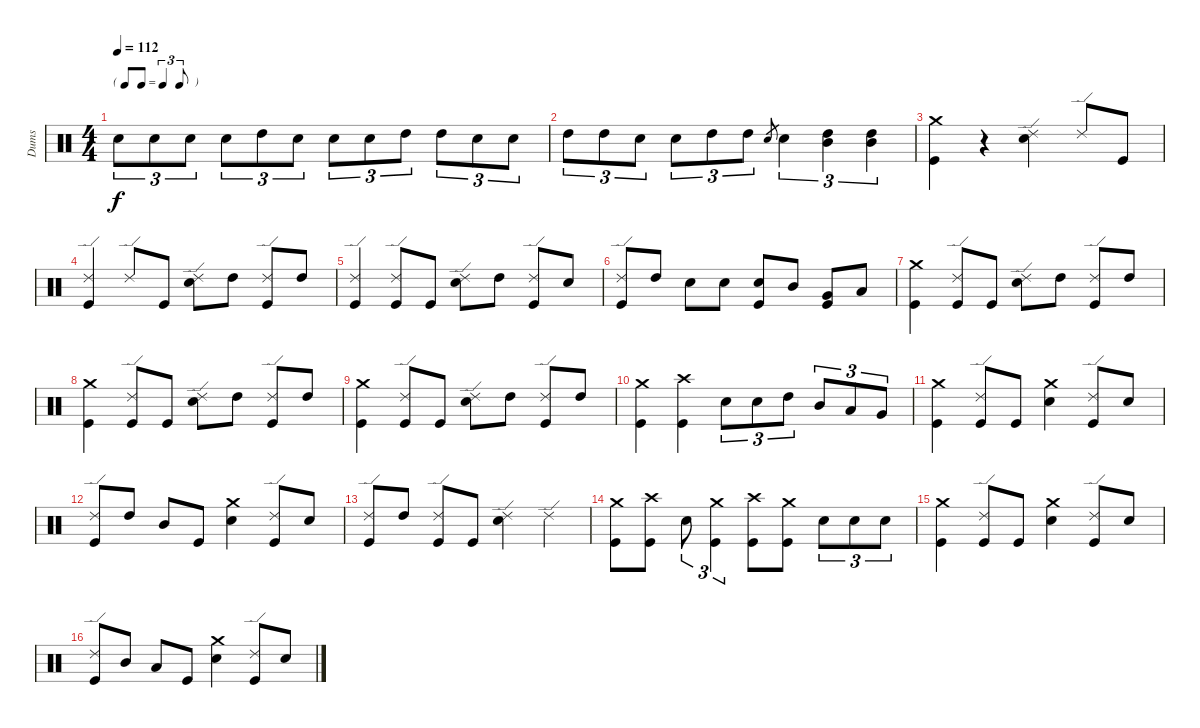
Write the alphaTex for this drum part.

\track ("Dums" "Dums") {instrument percussion}
\staff {score}
\articulation defaults
\ts (4 4)
\tf triplet8th
\tempo 112
\clef neutral
\ks c "Electric Snare (hit)".8{tu (3 2) dy f} "Electric Snare (hit)".8{tu (3 2)} "Electric Snare (hit)".8{tu (3 2)} "Electric Snare (hit)".8{tu (3 2)} "High Tom (hit)".8{tu (3 2)} "Electric Snare (hit)".8{tu (3 2)} "Electric Snare (hit)".8{tu (3 2)} "Electric Snare (hit)".8{tu (3 2)} "High Tom (hit)".8{tu (3 2)} "High Tom (hit)".8{tu (3 2)} "Electric Snare (hit)".8{tu (3 2)} "Electric Snare (hit)".8{tu (3 2)}
|
"High Tom (hit)".8{tu (3 2)} "High Tom (hit)".8{tu (3 2)} "Electric Snare (hit)".8{tu (3 2)} "Electric Snare (hit)".8{tu (3 2)} "High Tom (hit)".8{tu (3 2)} "High Tom (hit)".8{tu (3 2)} "Electric Snare (hit)".8{gr} "Electric Snare (hit)".4{tu (3 2)} ("Mid Tom (hit)" "High Tom (hit)").4{tu (3 2)} ("Mid Tom (hit)" "High Tom (hit)").4{tu (3 2)} |
("Kick (hit)" "Crash medium (hit)").4 r.4 ("Electric Snare (hit)" "Ride (edge) 2").4 "Ride (edge) 2".8 "Kick (hit)".8 |
("Kick (hit)" "Ride (edge) 2").4 "Ride (edge) 2".8 "Kick (hit)".8 ("Electric Snare (hit)" "Ride (edge) 2").8 "High Tom (hit)".8 ("Kick (hit)" "Ride (edge) 2").8 "High Tom (hit)".8 |
("Kick (hit)" "Ride (edge) 2").4 ("Kick (hit)" "Ride (edge) 2").8 "Kick (hit)".8 ("Electric Snare (hit)" "Ride (edge) 2").8 "High Tom (hit)".8 ("Kick (hit)" "Ride (edge) 2").8 "Electric Snare (hit)".8 |
("Kick (hit)" "Ride (edge) 2").8 "High Tom (hit)".8 "Electric Snare (hit)".8 "Electric Snare (hit)".8 ("Kick (hit)" "Electric Snare (hit)").8 "Mid Tom (hit)".8 ("Kick (hit)" "Very Low Tom (hit)").8 "Low Floor Tom (hit)".8 |
("Kick (hit)" "Crash medium (hit)").4 ("Kick (hit)" "Ride (edge) 2").8 "Kick (hit)".8 ("Electric Snare (hit)" "Ride (edge) 2").8 "High Tom (hit)".8 ("Kick (hit)" "Ride (edge) 2").8 "High Tom (hit)".8 |
("Kick (hit)" "Crash medium (hit)").4 ("Kick (hit)" "Ride (edge) 2").8 "Kick (hit)".8 ("Electric Snare (hit)" "Ride (edge) 2").8 "High Tom (hit)".8 ("Kick (hit)" "Ride (edge) 2").8 "High Tom (hit)".8 |
("Kick (hit)" "Crash medium (hit)").4 ("Kick (hit)" "Ride (edge) 2").8 "Kick (hit)".8 ("Electric Snare (hit)" "Ride (edge) 2").8 "High Tom (hit)".8 ("Kick (hit)" "Ride (edge) 2").8 "High Tom (hit)".8 |
("Kick (hit)" "Crash medium (hit)").4 ("Kick (hit)" "Crash high (hit)").4 "Electric Snare (hit)".8{tu (3 2)} "Electric Snare (hit)".8{tu (3 2)} "High Tom (hit)".8{tu (3 2)} "Mid Tom (hit)".8{tu (3 2)} "Low Tom (hit)".8{tu (3 2)} "Very Low Tom (hit)".8{tu (3 2)} |
("Kick (hit)" "Crash medium (hit)").4 ("Kick (hit)" "Ride (edge) 2").8 "Kick (hit)".8 ("Electric Snare (hit)" "Crash medium (hit)").4 ("Kick (hit)" "Ride (edge) 2").8 "Electric Snare (hit)".8 |
("Kick (hit)" "Ride (edge) 2").8 "High Tom (hit)".8 "Mid Tom (hit)".8 "Kick (hit)".8 ("Electric Snare (hit)" "Crash medium (hit)").4 ("Kick (hit)" "Ride (edge) 2").8 "Electric Snare (hit)".8 |
("Kick (hit)" "Ride (edge) 2").8 "High Tom (hit)".8 ("Kick (hit)" "Ride (edge) 2").8 "Kick (hit)".8 ("Electric Snare (hit)" "Ride (edge) 2").4 "Ride (edge) 2".4 |
("Kick (hit)" "Crash medium (hit)").8 ("Kick (hit)" "Crash high (hit)").8 "Electric Snare (hit)".8{tu (3 2)} ("Kick (hit)" "Crash medium (hit)").4{tu (3 2)} ("Kick (hit)" "Crash high (hit)").8 ("Kick (hit)" "Crash medium (hit)").8 "Electric Snare (hit)".8{tu (3 2)} "Electric Snare (hit)".8{tu (3 2)} "Electric Snare (hit)".8{tu (3 2)} |
("Kick (hit)" "Crash medium (hit)").4 ("Kick (hit)" "Ride (edge) 2").8 "Kick (hit)".8 ("Electric Snare (hit)" "Crash medium (hit)").4 ("Kick (hit)" "Ride (edge) 2").8 "Electric Snare (hit)".8 |
("Kick (hit)" "Ride (edge) 2").8 "Mid Tom (hit)".8 "Low Tom (hit)".8 "Kick (hit)".8 ("Electric Snare (hit)" "Crash medium (hit)").4 ("Kick (hit)" "Ride (edge) 2").8 "Electric Snare (hit)".8
